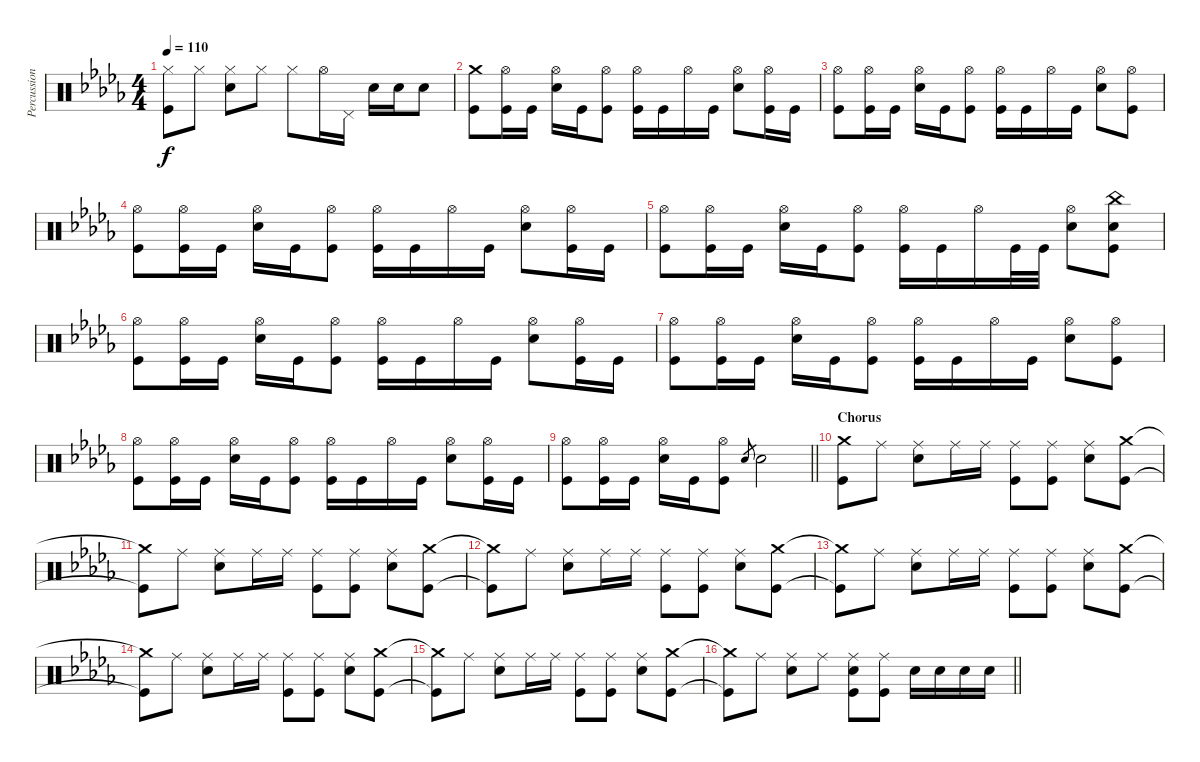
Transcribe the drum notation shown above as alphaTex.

\track ("Percussion" "Percussion") {instrument percussion}
\staff {score}
\articulation defaults
\ts (4 4)
\tempo 110
\clef neutral
\ks db
("Hi-Hat (closed)" "Kick (hit)").8{dy f} "Hi-Hat (closed)".8 ("Hi-Hat (closed)" "Electric Snare (hit)").8 "Hi-Hat (closed)".8 "Hi-Hat (closed)".8 "Hi-Hat (open)".16 "Pedal Hi-Hat (hit)".16 "Electric Snare (hit)".16 "Electric Snare (hit)".16 "Electric Snare (hit)".8 |
("Crash medium (hit)" "Kick (hit)").8 ("Hi-Hat (open)" "Kick (hit)").16 "Kick (hit)".16 ("Hi-Hat (open)" "Electric Snare (hit)").16 "Kick (hit)".16 ("Hi-Hat (open)" "Kick (hit)").8 ("Hi-Hat (open)" "Kick (hit)").16 "Kick (hit)".16 "Hi-Hat (open)".16 "Kick (hit)".16 ("Hi-Hat (open)" "Electric Snare (hit)").8 ("Hi-Hat (open)" "Kick (hit)").16 "Kick (hit)".16 |
("Hi-Hat (open)" "Kick (hit)").8 ("Hi-Hat (open)" "Kick (hit)").16 "Kick (hit)".16 ("Hi-Hat (open)" "Electric Snare (hit)").16 "Kick (hit)".16 ("Hi-Hat (open)" "Kick (hit)").8 ("Hi-Hat (open)" "Kick (hit)").16 "Kick (hit)".16 "Hi-Hat (open)".16 "Kick (hit)".16 ("Hi-Hat (open)" "Electric Snare (hit)").8 ("Hi-Hat (open)" "Kick (hit)").8 |
("Hi-Hat (open)" "Kick (hit)").8 ("Hi-Hat (open)" "Kick (hit)").16 "Kick (hit)".16 ("Hi-Hat (open)" "Electric Snare (hit)").16 "Kick (hit)".16 ("Hi-Hat (open)" "Kick (hit)").8 ("Hi-Hat (open)" "Kick (hit)").16 "Kick (hit)".16 "Hi-Hat (open)".16 "Kick (hit)".16 ("Hi-Hat (open)" "Electric Snare (hit)").8 ("Hi-Hat (open)" "Kick (hit)").16 "Kick (hit)".16 |
("Hi-Hat (open)" "Kick (hit)").8 ("Hi-Hat (open)" "Kick (hit)").16 "Kick (hit)".16 ("Hi-Hat (open)" "Electric Snare (hit)").16 "Kick (hit)".16 ("Hi-Hat (open)" "Kick (hit)").8 ("Hi-Hat (open)" "Kick (hit)").16 "Kick (hit)".16 "Hi-Hat (open)".16 "Kick (hit)".32 "Kick (hit)".32 ("Hi-Hat (open)" "Electric Snare (hit)").8 ("China (hit)" "Electric Snare (hit)" "Kick (hit)").8 |
("Hi-Hat (open)" "Kick (hit)").8 ("Hi-Hat (open)" "Kick (hit)").16 "Kick (hit)".16 ("Hi-Hat (open)" "Electric Snare (hit)").16 "Kick (hit)".16 ("Hi-Hat (open)" "Kick (hit)").8 ("Hi-Hat (open)" "Kick (hit)").16 "Kick (hit)".16 "Hi-Hat (open)".16 "Kick (hit)".16 ("Hi-Hat (open)" "Electric Snare (hit)").8 ("Hi-Hat (open)" "Kick (hit)").16 "Kick (hit)".16 |
("Hi-Hat (open)" "Kick (hit)").8 ("Hi-Hat (open)" "Kick (hit)").16 "Kick (hit)".16 ("Hi-Hat (open)" "Electric Snare (hit)").16 "Kick (hit)".16 ("Hi-Hat (open)" "Kick (hit)").8 ("Hi-Hat (open)" "Kick (hit)").16 "Kick (hit)".16 "Hi-Hat (open)".16 "Kick (hit)".16 ("Hi-Hat (open)" "Electric Snare (hit)").8 ("Hi-Hat (open)" "Kick (hit)").8 |
("Hi-Hat (open)" "Kick (hit)").8 ("Hi-Hat (open)" "Kick (hit)").16 "Kick (hit)".16 ("Hi-Hat (open)" "Electric Snare (hit)").16 "Kick (hit)".16 ("Hi-Hat (open)" "Kick (hit)").8 ("Hi-Hat (open)" "Kick (hit)").16 "Kick (hit)".16 "Hi-Hat (open)".16 "Kick (hit)".16 ("Hi-Hat (open)" "Electric Snare (hit)").8 ("Hi-Hat (open)" "Kick (hit)").16 "Kick (hit)".16 |
\barLineRight lightlight
("Hi-Hat (open)" "Kick (hit)").8 ("Hi-Hat (open)" "Kick (hit)").16 "Kick (hit)".16 ("Hi-Hat (open)" "Electric Snare (hit)").16 "Kick (hit)".16 ("Hi-Hat (open)" "Kick (hit)").8 "Electric Snare (hit)".8{gr} "Electric Snare (hit)".2 |
\section ("" "Chorus")
("Crash medium (hit)" "Kick (hit)").8 "Ride (middle)".8 ("Ride (middle)" "Electric Snare (hit)").8 "Ride (middle)".16 "Ride (middle)".16 ("Ride (middle)" "Kick (hit)").8 ("Ride (middle)" "Kick (hit)").8 ("Ride (middle)" "Electric Snare (hit)").8 ("Crash medium (hit)" "Kick (hit)").8 |
("Crash medium (hit)"{t} "Kick (hit)"{t}).8 "Ride (middle)".8 ("Ride (middle)" "Electric Snare (hit)").8 "Ride (middle)".16 "Ride (middle)".16 ("Ride (middle)" "Kick (hit)").8 ("Ride (middle)" "Kick (hit)").8 ("Ride (middle)" "Electric Snare (hit)").8 ("Crash medium (hit)" "Kick (hit)").8 |
("Crash medium (hit)"{t} "Kick (hit)"{t}).8 "Ride (middle)".8 ("Ride (middle)" "Electric Snare (hit)").8 "Ride (middle)".16 "Ride (middle)".16 ("Ride (middle)" "Kick (hit)").8 ("Ride (middle)" "Kick (hit)").8 ("Ride (middle)" "Electric Snare (hit)").8 ("Crash medium (hit)" "Kick (hit)").8 |
("Crash medium (hit)"{t} "Kick (hit)"{t}).8 "Ride (middle)".8 ("Ride (middle)" "Electric Snare (hit)").8 "Ride (middle)".16 "Ride (middle)".16 ("Ride (middle)" "Kick (hit)").8 ("Ride (middle)" "Kick (hit)").8 ("Ride (middle)" "Electric Snare (hit)").8 ("Crash medium (hit)" "Kick (hit)").8 |
("Crash medium (hit)"{t} "Kick (hit)"{t}).8 "Ride (middle)".8 ("Ride (middle)" "Electric Snare (hit)").8 "Ride (middle)".16 "Ride (middle)".16 ("Ride (middle)" "Kick (hit)").8 ("Ride (middle)" "Kick (hit)").8 ("Ride (middle)" "Electric Snare (hit)").8 ("Crash medium (hit)" "Kick (hit)").8 |
("Crash medium (hit)"{t} "Kick (hit)"{t}).8 "Ride (middle)".8 ("Ride (middle)" "Electric Snare (hit)").8 "Ride (middle)".16 "Ride (middle)".16 ("Ride (middle)" "Kick (hit)").8 ("Ride (middle)" "Kick (hit)").8 ("Ride (middle)" "Electric Snare (hit)").8 ("Crash medium (hit)" "Kick (hit)").8 |
\barLineRight lightlight
("Crash medium (hit)"{t} "Kick (hit)"{t}).8 "Ride (middle)".8 ("Ride (middle)" "Electric Snare (hit)").8 "Ride (middle)".8 ("Ride (middle)" "Electric Snare (hit)" "Kick (hit)").8 ("Ride (middle)" "Kick (hit)").8 "Electric Snare (hit)".16 "Electric Snare (hit)".16 "Electric Snare (hit)".16 "Electric Snare (hit)".16
